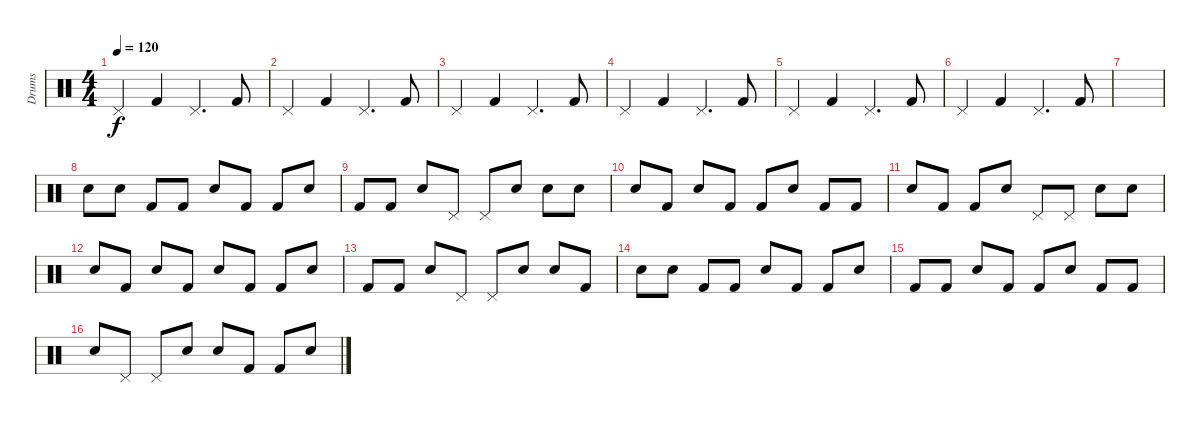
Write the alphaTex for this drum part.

\track ("Drums" "Drums") {instrument percussion}
\staff {score}
\articulation defaults
\ts (4 4)
\tempo 120
\clef neutral
\ks c "Pedal Hi-Hat (hit)".4{dy f} "Kick (hit) 2".4 "Pedal Hi-Hat (hit)".4{d} "Kick (hit) 2".8
|
"Pedal Hi-Hat (hit)".4 "Kick (hit) 2".4 "Pedal Hi-Hat (hit)".4{d} "Kick (hit) 2".8 |
"Pedal Hi-Hat (hit)".4 "Kick (hit) 2".4 "Pedal Hi-Hat (hit)".4{d} "Kick (hit) 2".8 |
"Pedal Hi-Hat (hit)".4 "Kick (hit) 2".4 "Pedal Hi-Hat (hit)".4{d} "Kick (hit) 2".8 |
"Pedal Hi-Hat (hit)".4 "Kick (hit) 2".4 "Pedal Hi-Hat (hit)".4{d} "Kick (hit) 2".8 |
"Pedal Hi-Hat (hit)".4 "Kick (hit) 2".4 "Pedal Hi-Hat (hit)".4{d} "Kick (hit) 2".8 |
|
"Snare (hit) 2".8 "Snare (hit) 2".8 "Kick (hit) 2".8 "Kick (hit) 2".8 "Snare (hit) 2".8 "Kick (hit) 2".8 "Kick (hit) 2".8 "Snare (hit) 2".8 |
"Kick (hit) 2".8 "Kick (hit) 2".8 "Snare (hit) 2".8 "Pedal Hi-Hat (hit)".8 "Pedal Hi-Hat (hit)".8 "Snare (hit) 2".8 "Snare (hit) 2".8 "Snare (hit) 2".8 |
"Snare (hit) 2".8 "Kick (hit) 2".8 "Snare (hit) 2".8 "Kick (hit) 2".8 "Kick (hit) 2".8 "Snare (hit) 2".8 "Kick (hit) 2".8 "Kick (hit) 2".8 |
"Snare (hit) 2".8 "Kick (hit) 2".8 "Kick (hit) 2".8 "Snare (hit) 2".8 "Pedal Hi-Hat (hit)".8 "Pedal Hi-Hat (hit)".8 "Snare (hit) 2".8 "Snare (hit) 2".8 |
"Snare (hit) 2".8 "Kick (hit) 2".8 "Snare (hit) 2".8 "Kick (hit) 2".8 "Snare (hit) 2".8 "Kick (hit) 2".8 "Kick (hit) 2".8 "Snare (hit) 2".8 |
"Kick (hit) 2".8 "Kick (hit) 2".8 "Snare (hit) 2".8 "Pedal Hi-Hat (hit)".8 "Pedal Hi-Hat (hit)".8 "Snare (hit) 2".8 "Snare (hit) 2".8 "Kick (hit) 2".8 |
"Snare (hit) 2".8 "Snare (hit) 2".8 "Kick (hit) 2".8 "Kick (hit) 2".8 "Snare (hit) 2".8 "Kick (hit) 2".8 "Kick (hit) 2".8 "Snare (hit) 2".8 |
"Kick (hit) 2".8 "Kick (hit) 2".8 "Snare (hit) 2".8 "Kick (hit) 2".8 "Kick (hit) 2".8 "Snare (hit) 2".8 "Kick (hit) 2".8 "Kick (hit) 2".8 |
"Snare (hit) 2".8 "Pedal Hi-Hat (hit)".8 "Pedal Hi-Hat (hit)".8 "Snare (hit) 2".8 "Snare (hit) 2".8 "Kick (hit) 2".8 "Kick (hit) 2".8 "Snare (hit) 2".8
